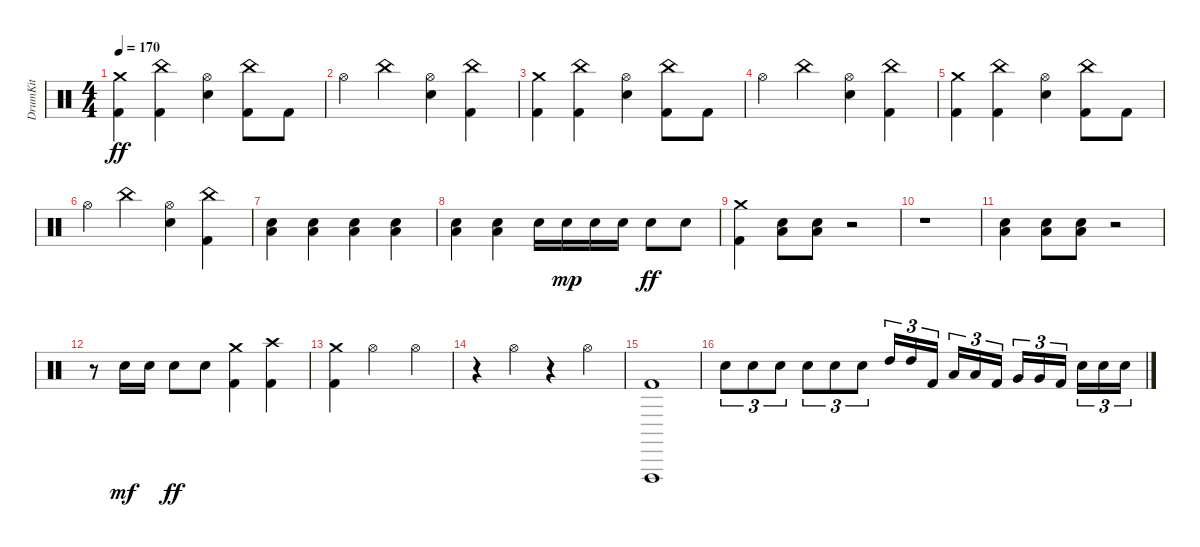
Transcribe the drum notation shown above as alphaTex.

\track ("DrumKit" "DrumKit") {instrument percussion}
\staff {score}
\articulation defaults
\ts (4 4)
\tempo 170
\clef neutral
\ks c
("Kick (hit) 2" "Crash medium (hit)").4{dy ff} ("Kick (hit) 2" "China (hit)").4 ("Snare (hit) 2" "Hi-Hat (open)").4 ("Kick (hit) 2" "China (hit)").8 "Kick (hit) 2".8 |
"Hi-Hat (open)".4 "China (hit)".4 ("Snare (hit) 2" "Hi-Hat (open)").4 ("Kick (hit) 2" "China (hit)").4 |
("Kick (hit) 2" "Crash medium (hit)").4 ("Kick (hit) 2" "China (hit)").4 ("Snare (hit) 2" "Hi-Hat (open)").4 ("Kick (hit) 2" "China (hit)").8 "Kick (hit) 2".8 |
"Hi-Hat (open)".4 "China (hit)".4 ("Snare (hit) 2" "Hi-Hat (open)").4 ("Kick (hit) 2" "China (hit)").4 |
("Kick (hit) 2" "Crash medium (hit)").4 ("Kick (hit) 2" "China (hit)").4 ("Snare (hit) 2" "Hi-Hat (open)").4 ("Kick (hit) 2" "China (hit)").8 "Kick (hit) 2".8 |
"Hi-Hat (open)".4 "China (hit)".4 ("Snare (hit) 2" "Hi-Hat (open)").4 ("Kick (hit) 2" "China (hit)").4 |
("Snare (hit) 2" "Low Floor Tom (hit)").4 ("Snare (hit) 2" "Low Floor Tom (hit)").4 ("Snare (hit) 2" "Low Floor Tom (hit)").4 ("Snare (hit) 2" "Low Floor Tom (hit)").4 |
("Snare (hit) 2" "Low Floor Tom (hit)").4 ("Snare (hit) 2" "Low Floor Tom (hit)").4 "Snare (hit) 2".16 "Snare (hit) 2".16{dy mp} "Snare (hit) 2".16 "Snare (hit) 2".16 "Snare (hit) 2".8{dy ff} "Snare (hit) 2".8 |
("Kick (hit) 2" "Crash medium (hit)").4 ("Snare (hit) 2" "Low Floor Tom (hit)").8 ("Snare (hit) 2" "Low Floor Tom (hit)").8 r.2 |
r.1 |
("Snare (hit) 2" "Low Floor Tom (hit)").4 ("Snare (hit) 2" "Low Floor Tom (hit)").8 ("Snare (hit) 2" "Low Floor Tom (hit)").8 r.2 |
r.8 "Snare (hit) 2".16{dy mf} "Snare (hit) 2".16 "Snare (hit) 2".8{dy ff} "Snare (hit) 2".8 ("Kick (hit) 2" "Crash medium (hit)").4 ("Kick (hit) 2" "Crash high (hit)").4 |
("Kick (hit) 2" "Crash medium (hit)").4 "Hi-Hat (open)".2 "Hi-Hat (open)".4 |
r.4 "Hi-Hat (open)".4 r.4 "Hi-Hat (open)".4 |
("Kick (hit) 2" "Vibraslap (hit)").1 |
"Snare (hit) 2".8{tu (3 2)} "Snare (hit) 2".8{tu (3 2)} "Snare (hit) 2".8{tu (3 2)} "Snare (hit) 2".8{tu (3 2)} "Snare (hit) 2".8{tu (3 2)} "Snare (hit) 2".8{tu (3 2)} "High Tom (hit)".16{tu (3 2)} "High Tom (hit)".16{tu (3 2)} "Kick (hit) 2".16{tu (3 2) beam splitsecondary} "Low Tom (hit)".16{tu (3 2)} "Low Tom (hit)".16{tu (3 2)} "Kick (hit) 2".16{tu (3 2)} "Very Low Tom (hit)".16{tu (3 2)} "Very Low Tom (hit)".16{tu (3 2)} "Kick (hit) 2".16{tu (3 2) beam splitsecondary} "Snare (hit) 2".16{tu (3 2)} "Snare (hit) 2".16{tu (3 2)} "Snare (hit) 2".16{tu (3 2)}
